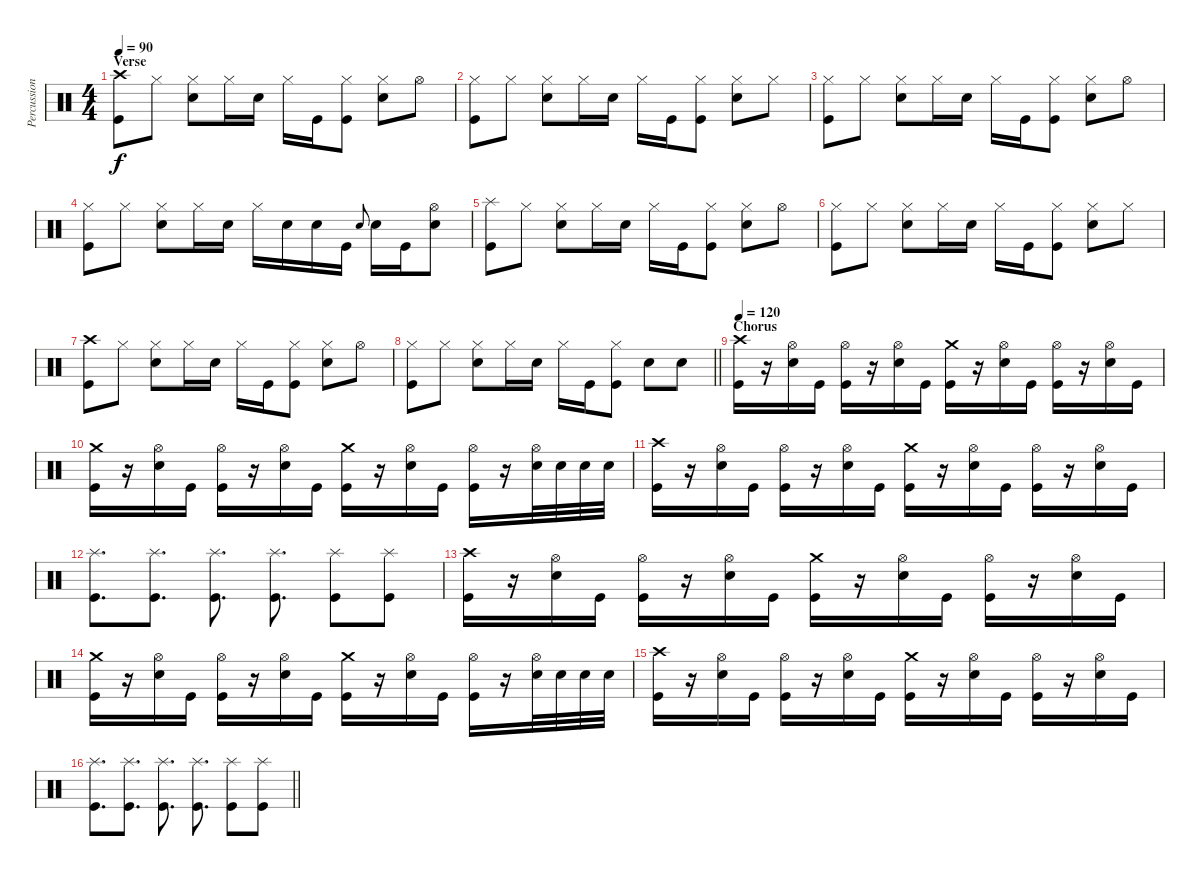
\track ("Percussion" "Percussion") {instrument percussion}
\staff {score}
\articulation defaults
\ts (4 4)
\section ("" "Verse")
\tempo 90
\clef neutral
\ks c
("Crash high (hit)" "Kick (hit)").8{dy f} "Hi-Hat (closed)".8 ("Hi-Hat (closed)" "Electric Snare (hit)").8 "Hi-Hat (closed)".16 "Electric Snare (hit)".16 "Hi-Hat (closed)".16 "Kick (hit)".16 ("Hi-Hat (closed)" "Kick (hit)").8 ("Hi-Hat (closed)" "Electric Snare (hit)").8 "Hi-Hat (open)".8 |
("Hi-Hat (closed)" "Kick (hit)").8 "Hi-Hat (closed)".8 ("Hi-Hat (closed)" "Electric Snare (hit)").8 "Hi-Hat (closed)".16 "Electric Snare (hit)".16 "Hi-Hat (closed)".16 "Kick (hit)".16 ("Hi-Hat (closed)" "Kick (hit)").8 ("Hi-Hat (closed)" "Electric Snare (hit)").8 "Hi-Hat (closed)".8 |
("Hi-Hat (closed)" "Kick (hit)").8 "Hi-Hat (closed)".8 ("Hi-Hat (closed)" "Electric Snare (hit)").8 "Hi-Hat (closed)".16 "Electric Snare (hit)".16 "Hi-Hat (closed)".16 "Kick (hit)".16 ("Hi-Hat (closed)" "Kick (hit)").8 ("Hi-Hat (closed)" "Electric Snare (hit)").8 "Hi-Hat (open)".8 |
("Hi-Hat (closed)" "Kick (hit)").8 "Hi-Hat (closed)".8 ("Hi-Hat (closed)" "Electric Snare (hit)").8 "Hi-Hat (closed)".16 "Electric Snare (hit)".16 "Hi-Hat (closed)".16 "Electric Snare (hit)".16 "Electric Snare (hit)".16 "Kick (hit)".16 "Electric Snare (hit)".8{gr onbeat} "Electric Snare (hit)".16 "Kick (hit)".16 ("Hi-Hat (open)" "Electric Snare (hit)").8 |
("Splash (hit)" "Kick (hit)").8 "Hi-Hat (closed)".8 ("Hi-Hat (closed)" "Electric Snare (hit)").8 "Hi-Hat (closed)".16 "Electric Snare (hit)".16 "Hi-Hat (closed)".16 "Kick (hit)".16 ("Hi-Hat (closed)" "Kick (hit)").8 ("Hi-Hat (closed)" "Electric Snare (hit)").8 "Hi-Hat (open)".8 |
("Hi-Hat (closed)" "Kick (hit)").8 "Hi-Hat (closed)".8 ("Hi-Hat (closed)" "Electric Snare (hit)").8 "Hi-Hat (closed)".16 "Electric Snare (hit)".16 "Hi-Hat (closed)".16 "Kick (hit)".16 ("Hi-Hat (closed)" "Kick (hit)").8 ("Hi-Hat (closed)" "Electric Snare (hit)").8 "Hi-Hat (closed)".8 |
("Crash high (hit)" "Kick (hit)").8 "Hi-Hat (closed)".8 ("Hi-Hat (closed)" "Electric Snare (hit)").8 "Hi-Hat (closed)".16 "Electric Snare (hit)".16 "Hi-Hat (closed)".16 "Kick (hit)".16 ("Hi-Hat (closed)" "Kick (hit)").8 ("Hi-Hat (closed)" "Electric Snare (hit)").8 "Hi-Hat (open)".8 |
\barLineRight lightlight
("Hi-Hat (closed)" "Kick (hit)").8 "Hi-Hat (closed)".8 ("Hi-Hat (closed)" "Electric Snare (hit)").8 "Hi-Hat (closed)".16 "Electric Snare (hit)".16 "Hi-Hat (closed)".16 "Kick (hit)".16 ("Hi-Hat (closed)" "Kick (hit)").8 "Electric Snare (hit)".8 "Electric Snare (hit)".8 |
\section ("" "Chorus")
\tempo 120
("Crash high (hit)" "Kick (hit)").16 r.16 ("Hi-Hat (open)" "Electric Snare (hit)").16 "Kick (hit)".16 ("Hi-Hat (open)" "Kick (hit)").16 r.16 ("Hi-Hat (open)" "Electric Snare (hit)").16 "Kick (hit)".16 ("Crash medium (hit)" "Kick (hit)").16 r.16 ("Hi-Hat (open)" "Electric Snare (hit)").16 "Kick (hit)".16 ("Hi-Hat (open)" "Kick (hit)").16 r.16 ("Hi-Hat (open)" "Electric Snare (hit)").16 "Kick (hit)".16 |
("Crash medium (hit)" "Kick (hit)").16 r.16 ("Hi-Hat (open)" "Electric Snare (hit)").16 "Kick (hit)".16 ("Hi-Hat (open)" "Kick (hit)").16 r.16 ("Hi-Hat (open)" "Electric Snare (hit)").16 "Kick (hit)".16 ("Crash medium (hit)" "Kick (hit)").16 r.16 ("Hi-Hat (open)" "Electric Snare (hit)").16 "Kick (hit)".16 ("Hi-Hat (open)" "Kick (hit)").16 r.16 ("Hi-Hat (open)" "Electric Snare (hit)").32 "Electric Snare (hit)".32 "Electric Snare (hit)".32 "Electric Snare (hit)".32 |
("Crash high (hit)" "Kick (hit)").16 r.16 ("Hi-Hat (open)" "Electric Snare (hit)").16 "Kick (hit)".16 ("Hi-Hat (open)" "Kick (hit)").16 r.16 ("Hi-Hat (open)" "Electric Snare (hit)").16 "Kick (hit)".16 ("Crash medium (hit)" "Kick (hit)").16 r.16 ("Hi-Hat (open)" "Electric Snare (hit)").16 "Kick (hit)".16 ("Hi-Hat (open)" "Kick (hit)").16 r.16 ("Hi-Hat (open)" "Electric Snare (hit)").16 "Kick (hit)".16 |
("Splash (hit)" "Kick (hit)").8{d} ("Splash (hit)" "Kick (hit)").8{d} ("Splash (hit)" "Kick (hit)").8{d} ("Splash (hit)" "Kick (hit)").8{d} ("Splash (hit)" "Kick (hit)").8 ("Splash (hit)" "Kick (hit)").8 |
("Crash high (hit)" "Kick (hit)").16 r.16 ("Hi-Hat (open)" "Electric Snare (hit)").16 "Kick (hit)".16 ("Hi-Hat (open)" "Kick (hit)").16 r.16 ("Hi-Hat (open)" "Electric Snare (hit)").16 "Kick (hit)".16 ("Crash medium (hit)" "Kick (hit)").16 r.16 ("Hi-Hat (open)" "Electric Snare (hit)").16 "Kick (hit)".16 ("Hi-Hat (open)" "Kick (hit)").16 r.16 ("Hi-Hat (open)" "Electric Snare (hit)").16 "Kick (hit)".16 |
("Crash medium (hit)" "Kick (hit)").16 r.16 ("Hi-Hat (open)" "Electric Snare (hit)").16 "Kick (hit)".16 ("Hi-Hat (open)" "Kick (hit)").16 r.16 ("Hi-Hat (open)" "Electric Snare (hit)").16 "Kick (hit)".16 ("Crash medium (hit)" "Kick (hit)").16 r.16 ("Hi-Hat (open)" "Electric Snare (hit)").16 "Kick (hit)".16 ("Hi-Hat (open)" "Kick (hit)").16 r.16 ("Hi-Hat (open)" "Electric Snare (hit)").32 "Electric Snare (hit)".32 "Electric Snare (hit)".32 "Electric Snare (hit)".32 |
("Crash high (hit)" "Kick (hit)").16 r.16 ("Hi-Hat (open)" "Electric Snare (hit)").16 "Kick (hit)".16 ("Hi-Hat (open)" "Kick (hit)").16 r.16 ("Hi-Hat (open)" "Electric Snare (hit)").16 "Kick (hit)".16 ("Crash medium (hit)" "Kick (hit)").16 r.16 ("Hi-Hat (open)" "Electric Snare (hit)").16 "Kick (hit)".16 ("Hi-Hat (open)" "Kick (hit)").16 r.16 ("Hi-Hat (open)" "Electric Snare (hit)").16 "Kick (hit)".16 |
\barLineRight lightlight
("Splash (hit)" "Kick (hit)").8{d} ("Splash (hit)" "Kick (hit)").8{d} ("Splash (hit)" "Kick (hit)").8{d} ("Splash (hit)" "Kick (hit)").8{d} ("Splash (hit)" "Kick (hit)").8 ("Splash (hit)" "Kick (hit)").8
